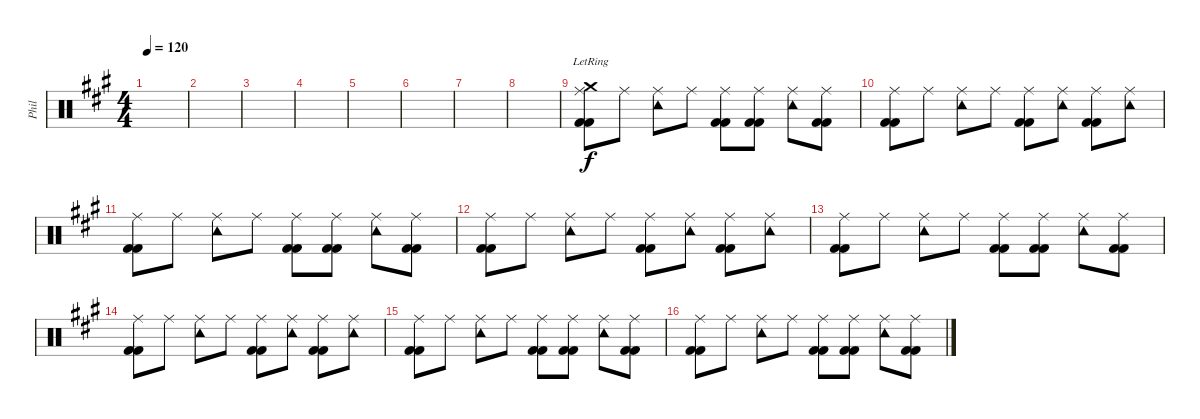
\track ("Phil" "Phil") {instrument percussion}
\staff {score}
\articulation defaults
\ts (4 4)
\tempo 120
\clef neutral
\ks a
|
|
|
|
|
|
|
|
("Kick (hit) 2" "Ride (middle)" "Kick (hit) 2" "Crash medium (hit)"{lr}).8{volume 7} "Ride (middle)".8 ("Ride (middle)" "Tambourine (hit)").8 "Ride (middle)".8 ("Kick (hit) 2" "Ride (middle)" "Kick (hit) 2").8 ("Kick (hit) 2" "Ride (middle)" "Kick (hit) 2").8 ("Ride (middle)" "Tambourine (hit)").8 ("Kick (hit) 2" "Ride (middle)" "Kick (hit) 2").8 |
("Kick (hit) 2" "Ride (middle)" "Kick (hit) 2").8 "Ride (middle)".8 ("Ride (middle)" "Tambourine (hit)").8 "Ride (middle)".8 ("Kick (hit) 2" "Ride (middle)" "Kick (hit) 2").8 ("Ride (middle)" "Tambourine (hit)").8 ("Kick (hit) 2" "Ride (middle)" "Kick (hit) 2").8 ("Ride (middle)" "Tambourine (hit)").8 |
("Kick (hit) 2" "Ride (middle)" "Kick (hit) 2").8 "Ride (middle)".8 ("Ride (middle)" "Tambourine (hit)").8 "Ride (middle)".8 ("Kick (hit) 2" "Ride (middle)" "Kick (hit) 2").8 ("Kick (hit) 2" "Ride (middle)" "Kick (hit) 2").8 ("Ride (middle)" "Tambourine (hit)").8 ("Kick (hit) 2" "Ride (middle)" "Kick (hit) 2").8 |
("Kick (hit) 2" "Ride (middle)" "Kick (hit) 2").8 "Ride (middle)".8 ("Ride (middle)" "Tambourine (hit)").8 "Ride (middle)".8 ("Kick (hit) 2" "Ride (middle)" "Kick (hit) 2").8 ("Ride (middle)" "Tambourine (hit)").8 ("Kick (hit) 2" "Ride (middle)" "Kick (hit) 2").8 ("Ride (middle)" "Tambourine (hit)").8 |
("Kick (hit) 2" "Ride (middle)" "Kick (hit) 2").8 "Ride (middle)".8 ("Ride (middle)" "Tambourine (hit)").8 "Ride (middle)".8 ("Kick (hit) 2" "Ride (middle)" "Kick (hit) 2").8 ("Kick (hit) 2" "Ride (middle)" "Kick (hit) 2").8 ("Ride (middle)" "Tambourine (hit)").8 ("Kick (hit) 2" "Ride (middle)" "Kick (hit) 2").8 |
("Kick (hit) 2" "Ride (middle)" "Kick (hit) 2").8 "Ride (middle)".8 ("Ride (middle)" "Tambourine (hit)").8 "Ride (middle)".8 ("Kick (hit) 2" "Ride (middle)" "Kick (hit) 2").8 ("Ride (middle)" "Tambourine (hit)").8 ("Kick (hit) 2" "Ride (middle)" "Kick (hit) 2").8 ("Ride (middle)" "Tambourine (hit)").8 |
("Kick (hit) 2" "Ride (middle)" "Kick (hit) 2").8 "Ride (middle)".8 ("Ride (middle)" "Tambourine (hit)").8 "Ride (middle)".8 ("Kick (hit) 2" "Ride (middle)" "Kick (hit) 2").8 ("Kick (hit) 2" "Ride (middle)" "Kick (hit) 2").8 ("Ride (middle)" "Tambourine (hit)").8 ("Kick (hit) 2" "Ride (middle)" "Kick (hit) 2").8 |
("Kick (hit) 2" "Ride (middle)" "Kick (hit) 2").8 "Ride (middle)".8 ("Ride (middle)" "Tambourine (hit)").8 "Ride (middle)".8 ("Kick (hit) 2" "Ride (middle)" "Kick (hit) 2").8 ("Kick (hit) 2" "Ride (middle)" "Kick (hit) 2").8 ("Ride (middle)" "Tambourine (hit)").8 ("Kick (hit) 2" "Ride (middle)" "Kick (hit) 2").8
